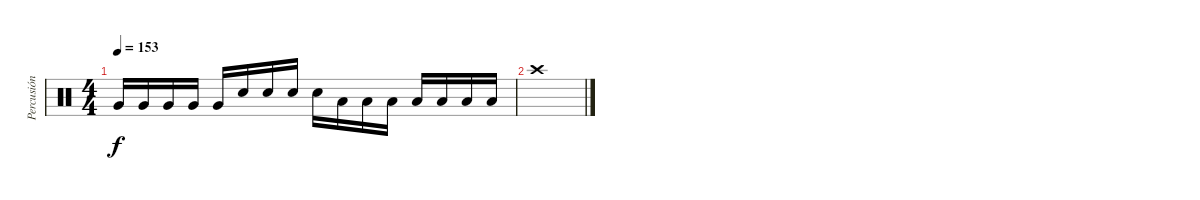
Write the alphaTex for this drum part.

\track ("Percusión" "Percusión") {instrument percussion}
\staff {score}
\articulation defaults
\ts (4 4)
\tempo 153
\clef neutral
\ks c "Very Low Tom (hit)".16{dy f} "Very Low Tom (hit)".16 "Very Low Tom (hit)".16 "Very Low Tom (hit)".16 "Very Low Tom (hit)".16 "Electric Snare (hit)".16 "Electric Snare (hit)".16 "Electric Snare (hit)".16 "Electric Snare (hit)".16 "Low Tom (hit)".16 "Low Tom (hit)".16 "Low Tom (hit)".16 "Low Tom (hit)".16 "Low Tom (hit)".16 "Low Tom (hit)".16 "Low Tom (hit)".16
|
"Crash high (hit)".1
